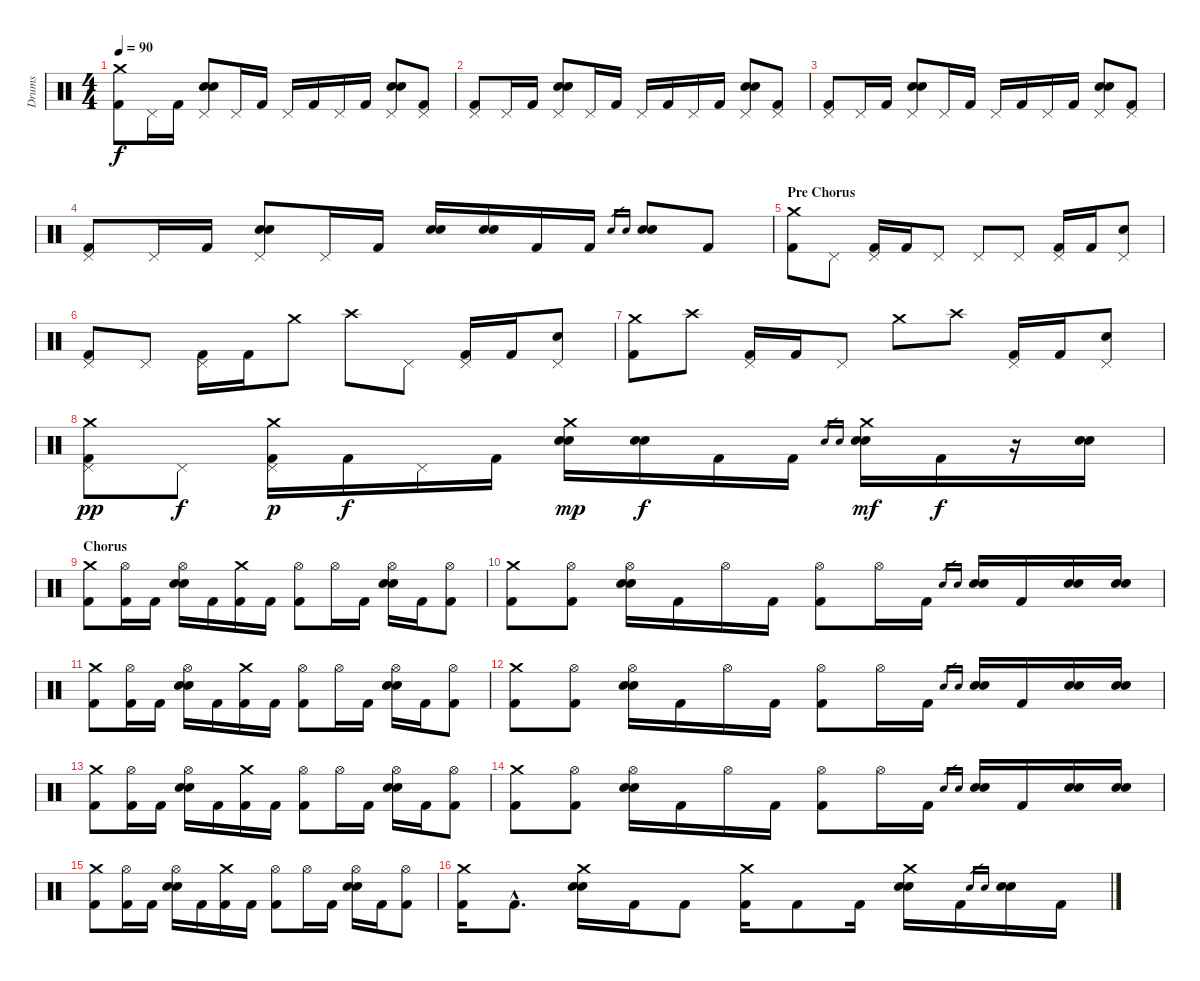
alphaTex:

\track ("Drums" "Drums") {instrument percussion}
\staff {score}
\articulation defaults
\ts (4 4)
\tempo 90
\clef neutral
\ks c
("Crash medium (hit)" "Kick (hit) 2").8{dy f} "Pedal Hi-Hat (hit)".16 "Kick (hit) 2".16 ("Pedal Hi-Hat (hit)" "Electric Snare (hit)" "Snare (hit) 2").8 "Pedal Hi-Hat (hit)".16 "Kick (hit) 2".16 "Pedal Hi-Hat (hit)".16 "Kick (hit) 2".16 "Pedal Hi-Hat (hit)".16 "Kick (hit) 2".16 ("Pedal Hi-Hat (hit)" "Electric Snare (hit)" "Snare (hit) 2").8 ("Pedal Hi-Hat (hit)" "Kick (hit) 2").8 |
("Pedal Hi-Hat (hit)" "Kick (hit) 2").8 "Pedal Hi-Hat (hit)".16 "Kick (hit) 2".16 ("Pedal Hi-Hat (hit)" "Electric Snare (hit)" "Snare (hit) 2").8 "Pedal Hi-Hat (hit)".16 "Kick (hit) 2".16 "Pedal Hi-Hat (hit)".16 "Kick (hit) 2".16 "Pedal Hi-Hat (hit)".16 "Kick (hit) 2".16 ("Pedal Hi-Hat (hit)" "Electric Snare (hit)" "Snare (hit) 2").8 ("Pedal Hi-Hat (hit)" "Kick (hit) 2").8 |
("Pedal Hi-Hat (hit)" "Kick (hit) 2").8 "Pedal Hi-Hat (hit)".16 "Kick (hit) 2".16 ("Pedal Hi-Hat (hit)" "Electric Snare (hit)" "Snare (hit) 2").8 "Pedal Hi-Hat (hit)".16 "Kick (hit) 2".16 "Pedal Hi-Hat (hit)".16 "Kick (hit) 2".16 "Pedal Hi-Hat (hit)".16 "Kick (hit) 2".16 ("Pedal Hi-Hat (hit)" "Electric Snare (hit)" "Snare (hit) 2").8 ("Pedal Hi-Hat (hit)" "Kick (hit) 2").8 |
("Pedal Hi-Hat (hit)" "Kick (hit) 2").8 "Pedal Hi-Hat (hit)".16 "Kick (hit) 2".16 ("Pedal Hi-Hat (hit)" "Electric Snare (hit)" "Snare (hit) 2").8 "Pedal Hi-Hat (hit)".16 "Kick (hit) 2".16 ("Snare (hit) 2" "Electric Snare (hit)").16 ("Snare (hit) 2" "Electric Snare (hit)").16 "Kick (hit) 2".16 "Kick (hit) 2".16 "Snare (hit) 2".16{gr} "Electric Snare (hit)".16{gr} ("Snare (hit) 2" "Electric Snare (hit)").8 "Kick (hit) 2".8 |
\section ("" "Pre Chorus")
("Crash medium (hit)" "Kick (hit) 2").8 "Pedal Hi-Hat (hit)".8 ("Pedal Hi-Hat (hit)" "Kick (hit) 2").16 "Kick (hit) 2".16 "Pedal Hi-Hat (hit)".8 "Pedal Hi-Hat (hit)".8 "Pedal Hi-Hat (hit)".8 ("Pedal Hi-Hat (hit)" "Kick (hit) 2").16 "Kick (hit) 2".16 ("Pedal Hi-Hat (hit)" "Electric Snare (hit)").8 |
("Pedal Hi-Hat (hit)" "Kick (hit) 2").8 "Pedal Hi-Hat (hit)".8 ("Pedal Hi-Hat (hit)" "Kick (hit) 2").16 "Kick (hit) 2".16 "Crash medium (hit)".8 "Crash high (hit)".8 "Pedal Hi-Hat (hit)".8 ("Pedal Hi-Hat (hit)" "Kick (hit) 2").16 "Kick (hit) 2".16 ("Pedal Hi-Hat (hit)" "Electric Snare (hit)").8 |
("Crash medium (hit)" "Kick (hit) 2").8 "Crash high (hit)".8 ("Pedal Hi-Hat (hit)" "Kick (hit) 2").16 "Kick (hit) 2".16 "Pedal Hi-Hat (hit)".8 "Crash medium (hit)".8 "Crash high (hit)".8 ("Pedal Hi-Hat (hit)" "Kick (hit) 2").16 "Kick (hit) 2".16 ("Pedal Hi-Hat (hit)" "Electric Snare (hit)").8 |
("Pedal Hi-Hat (hit)" "Kick (hit) 2" "Crash medium (hit)").8{dy pp} "Pedal Hi-Hat (hit)".8{dy f} ("Pedal Hi-Hat (hit)" "Kick (hit) 2" "Crash medium (hit)").16{dy p} "Kick (hit) 2".16{dy f} "Pedal Hi-Hat (hit)".16 "Kick (hit) 2".16 ("Snare (hit) 2" "Electric Snare (hit)" "Crash medium (hit)").16{dy mp} ("Snare (hit) 2" "Electric Snare (hit)").16{dy f} "Kick (hit) 2".16 "Kick (hit) 2".16 "Snare (hit) 2".16{gr} "Electric Snare (hit)".16{gr} ("Snare (hit) 2" "Electric Snare (hit)" "Crash medium (hit)").16{dy mf} "Kick (hit) 2".16{dy f} r.16 ("Snare (hit) 2" "Electric Snare (hit)").16 |
\section ("" "Chorus")
("Crash medium (hit)" "Kick (hit) 2").8 ("Hi-Hat (open)" "Kick (hit) 2").16 "Kick (hit) 2".16 ("Hi-Hat (open)" "Electric Snare (hit)" "Snare (hit) 2").16 "Kick (hit) 2".16 ("Crash medium (hit)" "Kick (hit) 2").16 "Kick (hit) 2".16 ("Hi-Hat (open)" "Kick (hit) 2").8 "Hi-Hat (open)".16 "Kick (hit) 2".16 ("Hi-Hat (open)" "Electric Snare (hit)" "Snare (hit) 2").16 "Kick (hit) 2".16 ("Hi-Hat (open)" "Kick (hit) 2").8 |
("Crash medium (hit)" "Kick (hit) 2").8 ("Hi-Hat (open)" "Kick (hit) 2").8 ("Hi-Hat (open)" "Electric Snare (hit)" "Snare (hit) 2").16 "Kick (hit) 2".16 "Hi-Hat (open)".16 "Kick (hit) 2".16 ("Hi-Hat (open)" "Kick (hit) 2").8 "Hi-Hat (open)".16 "Kick (hit) 2".16 "Electric Snare (hit)".16{gr} "Snare (hit) 2".16{gr} ("Electric Snare (hit)" "Snare (hit) 2").16 "Kick (hit) 2".16 ("Electric Snare (hit)" "Snare (hit) 2").16 ("Electric Snare (hit)" "Snare (hit) 2").16 |
("Crash medium (hit)" "Kick (hit) 2").8 ("Hi-Hat (open)" "Kick (hit) 2").16 "Kick (hit) 2".16 ("Hi-Hat (open)" "Electric Snare (hit)" "Snare (hit) 2").16 "Kick (hit) 2".16 ("Crash medium (hit)" "Kick (hit) 2").16 "Kick (hit) 2".16 ("Hi-Hat (open)" "Kick (hit) 2").8 "Hi-Hat (open)".16 "Kick (hit) 2".16 ("Hi-Hat (open)" "Electric Snare (hit)" "Snare (hit) 2").16 "Kick (hit) 2".16 ("Hi-Hat (open)" "Kick (hit) 2").8 |
("Crash medium (hit)" "Kick (hit) 2").8 ("Hi-Hat (open)" "Kick (hit) 2").8 ("Hi-Hat (open)" "Electric Snare (hit)" "Snare (hit) 2").16 "Kick (hit) 2".16 "Hi-Hat (open)".16 "Kick (hit) 2".16 ("Hi-Hat (open)" "Kick (hit) 2").8 "Hi-Hat (open)".16 "Kick (hit) 2".16 "Electric Snare (hit)".16{gr} "Snare (hit) 2".16{gr} ("Electric Snare (hit)" "Snare (hit) 2").16 "Kick (hit) 2".16 ("Electric Snare (hit)" "Snare (hit) 2").16 ("Electric Snare (hit)" "Snare (hit) 2").16 |
("Crash medium (hit)" "Kick (hit) 2").8 ("Hi-Hat (open)" "Kick (hit) 2").16 "Kick (hit) 2".16 ("Hi-Hat (open)" "Electric Snare (hit)" "Snare (hit) 2").16 "Kick (hit) 2".16 ("Crash medium (hit)" "Kick (hit) 2").16 "Kick (hit) 2".16 ("Hi-Hat (open)" "Kick (hit) 2").8 "Hi-Hat (open)".16 "Kick (hit) 2".16 ("Hi-Hat (open)" "Electric Snare (hit)" "Snare (hit) 2").16 "Kick (hit) 2".16 ("Hi-Hat (open)" "Kick (hit) 2").8 |
("Crash medium (hit)" "Kick (hit) 2").8 ("Hi-Hat (open)" "Kick (hit) 2").8 ("Hi-Hat (open)" "Electric Snare (hit)" "Snare (hit) 2").16 "Kick (hit) 2".16 "Hi-Hat (open)".16 "Kick (hit) 2".16 ("Hi-Hat (open)" "Kick (hit) 2").8 "Hi-Hat (open)".16 "Kick (hit) 2".16 "Electric Snare (hit)".16{gr} "Snare (hit) 2".16{gr} ("Electric Snare (hit)" "Snare (hit) 2").16 "Kick (hit) 2".16 ("Electric Snare (hit)" "Snare (hit) 2").16 ("Electric Snare (hit)" "Snare (hit) 2").16 |
("Crash medium (hit)" "Kick (hit) 2").8 ("Hi-Hat (open)" "Kick (hit) 2").16 "Kick (hit) 2".16 ("Hi-Hat (open)" "Electric Snare (hit)" "Snare (hit) 2").16 "Kick (hit) 2".16 ("Crash medium (hit)" "Kick (hit) 2").16 "Kick (hit) 2".16 ("Hi-Hat (open)" "Kick (hit) 2").8 "Hi-Hat (open)".16 "Kick (hit) 2".16 ("Hi-Hat (open)" "Electric Snare (hit)" "Snare (hit) 2").16 "Kick (hit) 2".16 ("Hi-Hat (open)" "Kick (hit) 2").8 |
("Crash medium (hit)" "Kick (hit) 2").16 "Kick (hit) 2"{hac}.8{d} ("Crash medium (hit)" "Electric Snare (hit)" "Snare (hit) 2").16 "Kick (hit) 2".16 "Kick (hit) 2".8 ("Crash medium (hit)" "Kick (hit) 2").16 "Kick (hit) 2".8 "Kick (hit) 2".16 ("Crash medium (hit)" "Electric Snare (hit)" "Snare (hit) 2").16 "Kick (hit) 2".16 "Electric Snare (hit)".16{gr} "Snare (hit) 2".16{gr} ("Electric Snare (hit)" "Snare (hit) 2").16 "Kick (hit) 2".16
